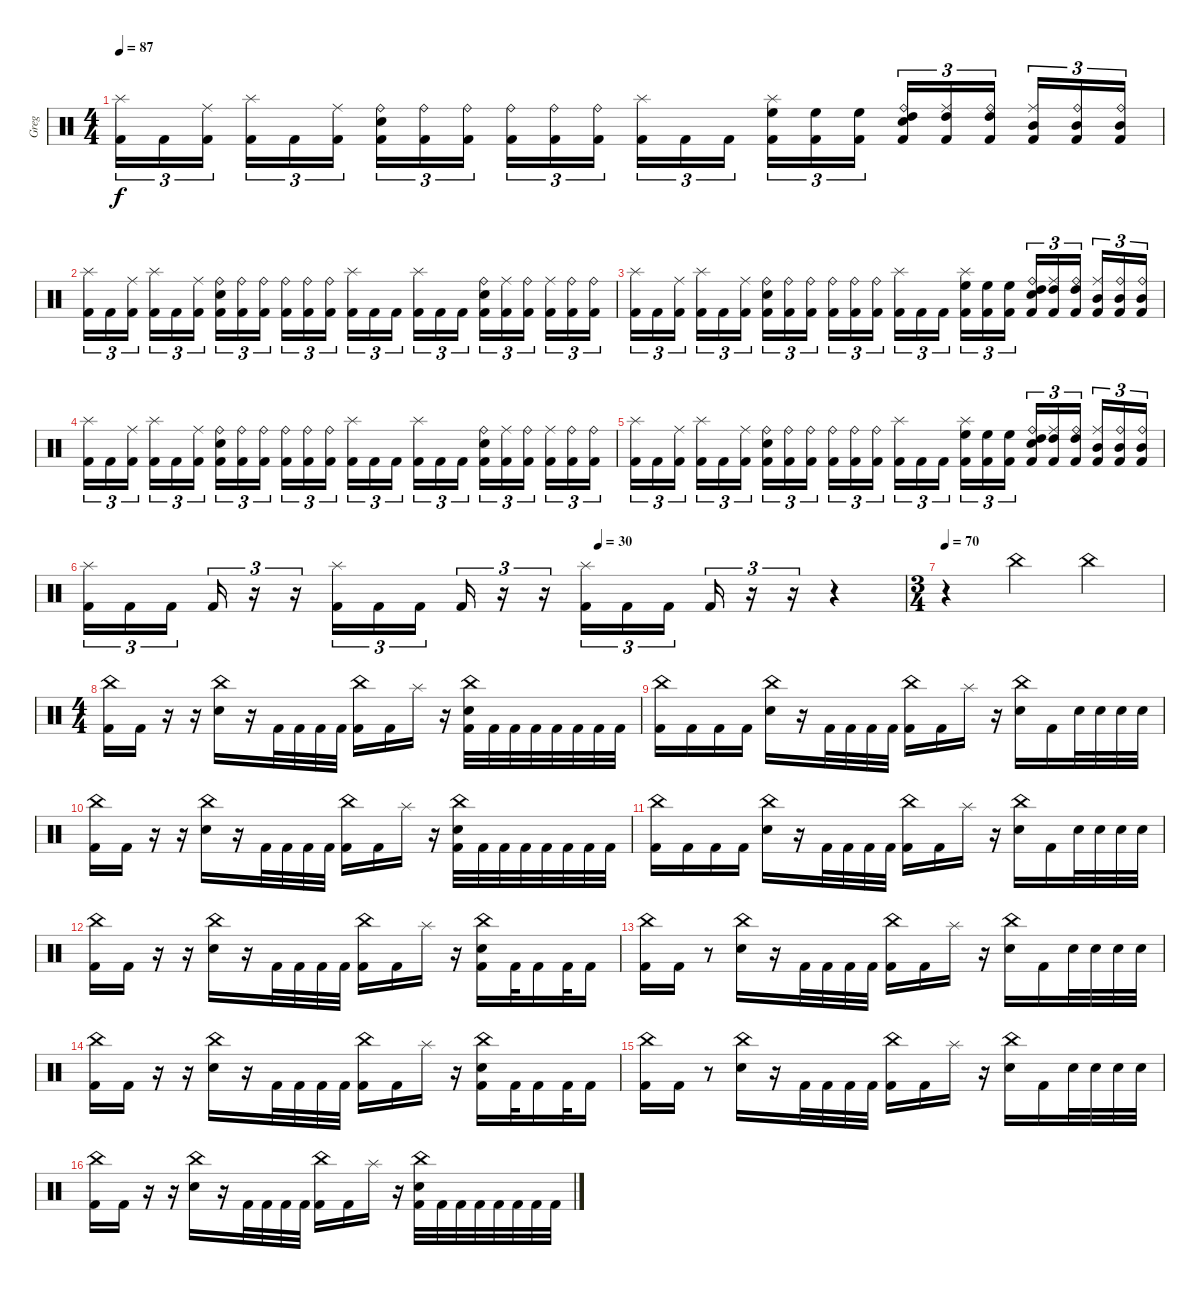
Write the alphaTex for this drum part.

\track ("Greg" "Greg") {instrument percussion}
\staff {score}
\articulation defaults
\ts (4 4)
\tempo 87
\clef neutral
\ks c
("Splash (hit)" "Kick (hit) 2").16{tu (3 2) dy f} "Kick (hit) 2".16{tu (3 2)} ("Ride (middle)" "Kick (hit) 2").16{tu (3 2) beam splitsecondary} ("Splash (hit)" "Kick (hit) 2").16{tu (3 2)} "Kick (hit) 2".16{tu (3 2)} ("Ride (middle)" "Kick (hit) 2").16{tu (3 2)} ("Ride (bell)" "Snare (hit) 2" "Kick (hit) 2").16{tu (3 2)} ("Ride (bell)" "Kick (hit) 2").16{tu (3 2)} ("Ride (bell)" "Kick (hit) 2").16{tu (3 2) beam splitsecondary} ("Ride (bell)" "Kick (hit) 2").16{tu (3 2)} ("Ride (bell)" "Kick (hit) 2").16{tu (3 2)} ("Ride (bell)" "Kick (hit) 2").16{tu (3 2)} ("Splash (hit)" "Kick (hit) 2").16{tu (3 2)} "Kick (hit) 2".16{tu (3 2)} "Kick (hit) 2".16{tu (3 2) beam splitsecondary} ("Splash (hit)" "High Floor Tom (hit)" "Kick (hit) 2").16{tu (3 2)} ("High Floor Tom (hit)" "Kick (hit) 2").16{tu (3 2)} ("High Floor Tom (hit)" "Kick (hit) 2").16{tu (3 2)} ("Ride (bell)" "High Tom (hit)" "Snare (hit) 2" "Kick (hit) 2").16{tu (3 2)} ("Ride (middle)" "High Tom (hit)" "Kick (hit) 2").16{tu (3 2)} ("Ride (bell)" "High Tom (hit)" "Kick (hit) 2").16{tu (3 2) beam splitsecondary} ("Ride (middle)" "Mid Tom (hit)" "Kick (hit) 2").16{tu (3 2)} ("Ride (bell)" "Mid Tom (hit)" "Kick (hit) 2").16{tu (3 2)} ("Ride (bell)" "Mid Tom (hit)" "Kick (hit) 2").16{tu (3 2)} |
("Splash (hit)" "Kick (hit) 2").16{tu (3 2)} "Kick (hit) 2".16{tu (3 2)} ("Ride (middle)" "Kick (hit) 2").16{tu (3 2) beam splitsecondary} ("Splash (hit)" "Kick (hit) 2").16{tu (3 2)} "Kick (hit) 2".16{tu (3 2)} ("Ride (middle)" "Kick (hit) 2").16{tu (3 2)} ("Ride (bell)" "Snare (hit) 2" "Kick (hit) 2").16{tu (3 2)} ("Ride (bell)" "Kick (hit) 2").16{tu (3 2)} ("Ride (bell)" "Kick (hit) 2").16{tu (3 2) beam splitsecondary} ("Ride (bell)" "Kick (hit) 2").16{tu (3 2)} ("Ride (bell)" "Kick (hit) 2").16{tu (3 2)} ("Ride (bell)" "Kick (hit) 2").16{tu (3 2)} ("Splash (hit)" "Kick (hit) 2").16{tu (3 2)} "Kick (hit) 2".16{tu (3 2)} "Kick (hit) 2".16{tu (3 2) beam splitsecondary} ("Splash (hit)" "Kick (hit) 2").16{tu (3 2)} "Kick (hit) 2".16{tu (3 2)} "Kick (hit) 2".16{tu (3 2)} ("Ride (bell)" "Snare (hit) 2" "Kick (hit) 2").16{tu (3 2)} ("Ride (middle)" "Kick (hit) 2").16{tu (3 2)} ("Ride (bell)" "Kick (hit) 2").16{tu (3 2) beam splitsecondary} ("Ride (middle)" "Kick (hit) 2").16{tu (3 2)} ("Ride (bell)" "Kick (hit) 2").16{tu (3 2)} ("Ride (bell)" "Kick (hit) 2").16{tu (3 2)} |
("Splash (hit)" "Kick (hit) 2").16{tu (3 2)} "Kick (hit) 2".16{tu (3 2)} ("Ride (middle)" "Kick (hit) 2").16{tu (3 2) beam splitsecondary} ("Splash (hit)" "Kick (hit) 2").16{tu (3 2)} "Kick (hit) 2".16{tu (3 2)} ("Ride (middle)" "Kick (hit) 2").16{tu (3 2)} ("Ride (bell)" "Snare (hit) 2" "Kick (hit) 2").16{tu (3 2)} ("Ride (bell)" "Kick (hit) 2").16{tu (3 2)} ("Ride (bell)" "Kick (hit) 2").16{tu (3 2) beam splitsecondary} ("Ride (bell)" "Kick (hit) 2").16{tu (3 2)} ("Ride (bell)" "Kick (hit) 2").16{tu (3 2)} ("Ride (bell)" "Kick (hit) 2").16{tu (3 2)} ("Splash (hit)" "Kick (hit) 2").16{tu (3 2)} "Kick (hit) 2".16{tu (3 2)} "Kick (hit) 2".16{tu (3 2) beam splitsecondary} ("Splash (hit)" "High Floor Tom (hit)" "Kick (hit) 2").16{tu (3 2)} ("High Floor Tom (hit)" "Kick (hit) 2").16{tu (3 2)} ("High Floor Tom (hit)" "Kick (hit) 2").16{tu (3 2)} ("Ride (bell)" "High Tom (hit)" "Snare (hit) 2" "Kick (hit) 2").16{tu (3 2)} ("Ride (middle)" "High Tom (hit)" "Kick (hit) 2").16{tu (3 2)} ("Ride (bell)" "High Tom (hit)" "Kick (hit) 2").16{tu (3 2) beam splitsecondary} ("Ride (middle)" "Mid Tom (hit)" "Kick (hit) 2").16{tu (3 2)} ("Ride (bell)" "Mid Tom (hit)" "Kick (hit) 2").16{tu (3 2)} ("Ride (bell)" "Mid Tom (hit)" "Kick (hit) 2").16{tu (3 2)} |
("Splash (hit)" "Kick (hit) 2").16{tu (3 2)} "Kick (hit) 2".16{tu (3 2)} ("Ride (middle)" "Kick (hit) 2").16{tu (3 2) beam splitsecondary} ("Splash (hit)" "Kick (hit) 2").16{tu (3 2)} "Kick (hit) 2".16{tu (3 2)} ("Ride (middle)" "Kick (hit) 2").16{tu (3 2)} ("Ride (bell)" "Snare (hit) 2" "Kick (hit) 2").16{tu (3 2)} ("Ride (bell)" "Kick (hit) 2").16{tu (3 2)} ("Ride (bell)" "Kick (hit) 2").16{tu (3 2) beam splitsecondary} ("Ride (bell)" "Kick (hit) 2").16{tu (3 2)} ("Ride (bell)" "Kick (hit) 2").16{tu (3 2)} ("Ride (bell)" "Kick (hit) 2").16{tu (3 2)} ("Splash (hit)" "Kick (hit) 2").16{tu (3 2)} "Kick (hit) 2".16{tu (3 2)} "Kick (hit) 2".16{tu (3 2) beam splitsecondary} ("Splash (hit)" "Kick (hit) 2").16{tu (3 2)} "Kick (hit) 2".16{tu (3 2)} "Kick (hit) 2".16{tu (3 2)} ("Ride (bell)" "Snare (hit) 2" "Kick (hit) 2").16{tu (3 2)} ("Ride (middle)" "Kick (hit) 2").16{tu (3 2)} ("Ride (bell)" "Kick (hit) 2").16{tu (3 2) beam splitsecondary} ("Ride (middle)" "Kick (hit) 2").16{tu (3 2)} ("Ride (bell)" "Kick (hit) 2").16{tu (3 2)} ("Ride (bell)" "Kick (hit) 2").16{tu (3 2)} |
("Splash (hit)" "Kick (hit) 2").16{tu (3 2)} "Kick (hit) 2".16{tu (3 2)} ("Ride (middle)" "Kick (hit) 2").16{tu (3 2) beam splitsecondary} ("Splash (hit)" "Kick (hit) 2").16{tu (3 2)} "Kick (hit) 2".16{tu (3 2)} ("Ride (middle)" "Kick (hit) 2").16{tu (3 2)} ("Ride (bell)" "Snare (hit) 2" "Kick (hit) 2").16{tu (3 2)} ("Ride (bell)" "Kick (hit) 2").16{tu (3 2)} ("Ride (bell)" "Kick (hit) 2").16{tu (3 2) beam splitsecondary} ("Ride (bell)" "Kick (hit) 2").16{tu (3 2)} ("Ride (bell)" "Kick (hit) 2").16{tu (3 2)} ("Ride (bell)" "Kick (hit) 2").16{tu (3 2)} ("Splash (hit)" "Kick (hit) 2").16{tu (3 2)} "Kick (hit) 2".16{tu (3 2)} "Kick (hit) 2".16{tu (3 2) beam splitsecondary} ("Splash (hit)" "High Floor Tom (hit)" "Kick (hit) 2").16{tu (3 2)} ("High Floor Tom (hit)" "Kick (hit) 2").16{tu (3 2)} ("High Floor Tom (hit)" "Kick (hit) 2").16{tu (3 2)} ("Ride (bell)" "High Tom (hit)" "Snare (hit) 2" "Kick (hit) 2").16{tu (3 2)} ("Ride (middle)" "High Tom (hit)" "Kick (hit) 2").16{tu (3 2)} ("Ride (bell)" "High Tom (hit)" "Kick (hit) 2").16{tu (3 2) beam splitsecondary} ("Ride (middle)" "Mid Tom (hit)" "Kick (hit) 2").16{tu (3 2)} ("Ride (bell)" "Mid Tom (hit)" "Kick (hit) 2").16{tu (3 2)} ("Ride (bell)" "Mid Tom (hit)" "Kick (hit) 2").16{tu (3 2)} |
\tempo (30 0.625)
("Splash (hit)" "Kick (hit) 2").16{tu (3 2)} "Kick (hit) 2".16{tu (3 2)} "Kick (hit) 2".16{tu (3 2) beam splitsecondary} "Kick (hit) 2".16{tu (3 2)} r.16{tu (3 2)} r.16{tu (3 2)} ("Splash (hit)" "Kick (hit) 2").16{tu (3 2)} "Kick (hit) 2".16{tu (3 2)} "Kick (hit) 2".16{tu (3 2) beam splitsecondary} "Kick (hit) 2".16{tu (3 2)} r.16{tu (3 2)} r.16{tu (3 2)} ("Splash (hit)" "Kick (hit) 2").16{tu (3 2)} "Kick (hit) 2".16{tu (3 2)} "Kick (hit) 2".16{tu (3 2) beam splitsecondary} "Kick (hit) 2".16{tu (3 2)} r.16{tu (3 2)} r.16{tu (3 2)} r.4 |
\ts (3 4)
\tempo 70
r.4 "China (hit)".4 "China (hit)".4 |
\ts (4 4)
("China (hit)" "Kick (hit) 2").16 "Kick (hit) 2".16 r.16 r.16 ("China (hit)" "Snare (hit) 2").16 r.16 "Kick (hit) 2".32 "Kick (hit) 2".32 "Kick (hit) 2".32 "Kick (hit) 2".32 ("China (hit)" "Kick (hit) 2").16 "Kick (hit) 2".16 "Splash (hit)".16 r.16 ("China (hit)" "Snare (hit) 2" "Kick (hit) 2").32 "Kick (hit) 2".32 "Kick (hit) 2".32 "Kick (hit) 2".32 "Kick (hit) 2".32 "Kick (hit) 2".32 "Kick (hit) 2".32 "Kick (hit) 2".32 |
("China (hit)" "Kick (hit) 2").16 "Kick (hit) 2".16 "Kick (hit) 2".16 "Kick (hit) 2".16 ("China (hit)" "Snare (hit) 2").16 r.16 "Kick (hit) 2".32 "Kick (hit) 2".32 "Kick (hit) 2".32 "Kick (hit) 2".32 ("China (hit)" "Kick (hit) 2").16 "Kick (hit) 2".16 "Splash (hit)".16 r.16 ("China (hit)" "Snare (hit) 2").16 "Kick (hit) 2".16 "Snare (hit) 2".32 "Snare (hit) 2".32 "Snare (hit) 2".32 "Snare (hit) 2".32 |
("China (hit)" "Kick (hit) 2").16 "Kick (hit) 2".16 r.16 r.16 ("China (hit)" "Snare (hit) 2").16 r.16 "Kick (hit) 2".32 "Kick (hit) 2".32 "Kick (hit) 2".32 "Kick (hit) 2".32 ("China (hit)" "Kick (hit) 2").16 "Kick (hit) 2".16 "Splash (hit)".16 r.16 ("China (hit)" "Snare (hit) 2" "Kick (hit) 2").32 "Kick (hit) 2".32 "Kick (hit) 2".32 "Kick (hit) 2".32 "Kick (hit) 2".32 "Kick (hit) 2".32 "Kick (hit) 2".32 "Kick (hit) 2".32 |
("China (hit)" "Kick (hit) 2").16 "Kick (hit) 2".16 "Kick (hit) 2".16 "Kick (hit) 2".16 ("China (hit)" "Snare (hit) 2").16 r.16 "Kick (hit) 2".32 "Kick (hit) 2".32 "Kick (hit) 2".32 "Kick (hit) 2".32 ("China (hit)" "Kick (hit) 2").16 "Kick (hit) 2".16 "Splash (hit)".16 r.16 ("China (hit)" "Snare (hit) 2").16 "Kick (hit) 2".16 "Snare (hit) 2".32 "Snare (hit) 2".32 "Snare (hit) 2".32 "Snare (hit) 2".32 |
("China (hit)" "Kick (hit) 2").16 "Kick (hit) 2".16 r.16 r.16 ("China (hit)" "Snare (hit) 2").16 r.16 "Kick (hit) 2".32 "Kick (hit) 2".32 "Kick (hit) 2".32 "Kick (hit) 2".32 ("China (hit)" "Kick (hit) 2").16 "Kick (hit) 2".16 "Splash (hit)".16 r.16 ("China (hit)" "Snare (hit) 2" "Kick (hit) 2").16 "Kick (hit) 2".32 "Kick (hit) 2".16 "Kick (hit) 2".32 "Kick (hit) 2".16 |
("China (hit)" "Kick (hit) 2").16 "Kick (hit) 2".16 r.8 ("China (hit)" "Snare (hit) 2").16 r.16 "Kick (hit) 2".32 "Kick (hit) 2".32 "Kick (hit) 2".32 "Kick (hit) 2".32 ("China (hit)" "Kick (hit) 2").16 "Kick (hit) 2".16 "Splash (hit)".16 r.16 ("China (hit)" "Snare (hit) 2").16 "Kick (hit) 2".16 "Snare (hit) 2".32 "Snare (hit) 2".32 "Snare (hit) 2".32 "Snare (hit) 2".32 |
("China (hit)" "Kick (hit) 2").16 "Kick (hit) 2".16 r.16 r.16 ("China (hit)" "Snare (hit) 2").16 r.16 "Kick (hit) 2".32 "Kick (hit) 2".32 "Kick (hit) 2".32 "Kick (hit) 2".32 ("China (hit)" "Kick (hit) 2").16 "Kick (hit) 2".16 "Splash (hit)".16 r.16 ("China (hit)" "Snare (hit) 2" "Kick (hit) 2").16 "Kick (hit) 2".32 "Kick (hit) 2".16 "Kick (hit) 2".32 "Kick (hit) 2".16 |
("China (hit)" "Kick (hit) 2").16 "Kick (hit) 2".16 r.8 ("China (hit)" "Snare (hit) 2").16 r.16 "Kick (hit) 2".32 "Kick (hit) 2".32 "Kick (hit) 2".32 "Kick (hit) 2".32 ("China (hit)" "Kick (hit) 2").16 "Kick (hit) 2".16 "Splash (hit)".16 r.16 ("China (hit)" "Snare (hit) 2").16 "Kick (hit) 2".16 "Snare (hit) 2".32 "Snare (hit) 2".32 "Snare (hit) 2".32 "Snare (hit) 2".32 |
("China (hit)" "Kick (hit) 2").16 "Kick (hit) 2".16 r.16 r.16 ("China (hit)" "Snare (hit) 2").16 r.16 "Kick (hit) 2".32 "Kick (hit) 2".32 "Kick (hit) 2".32 "Kick (hit) 2".32 ("China (hit)" "Kick (hit) 2").16 "Kick (hit) 2".16 "Splash (hit)".16 r.16 ("China (hit)" "Snare (hit) 2" "Kick (hit) 2").32 "Kick (hit) 2".32 "Kick (hit) 2".32 "Kick (hit) 2".32 "Kick (hit) 2".32 "Kick (hit) 2".32 "Kick (hit) 2".32 "Kick (hit) 2".32
